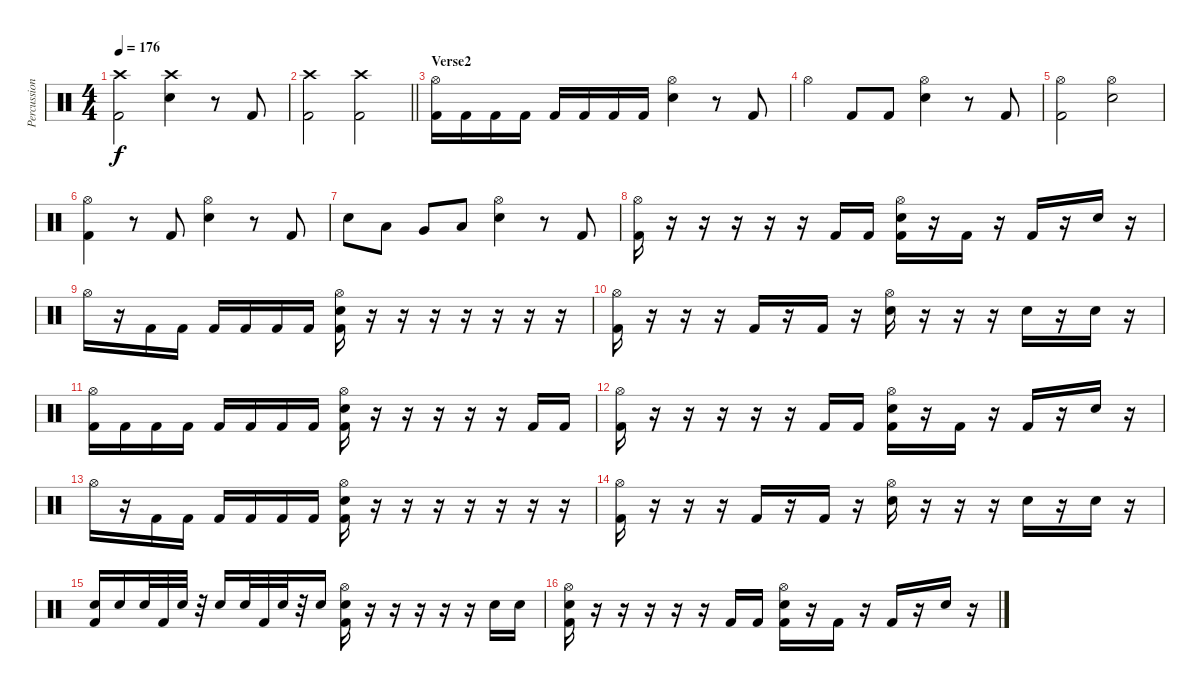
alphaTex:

\track ("Percussion" "Percussion") {instrument percussion}
\staff {score}
\articulation defaults
\ts (4 4)
\tempo 176
\clef neutral
\ks c
("Crash high (hit)" "Kick (hit) 2").2{dy f} ("Crash high (hit)" "Snare (hit) 2").4 r.8 "Kick (hit) 2".8 |
\barLineRight lightlight
("Crash high (hit)" "Kick (hit) 2").2 ("Crash high (hit)" "Kick (hit) 2").2 |
\section ("" "Verse2")
("Hi-Hat (open)" "Kick (hit) 2").16 "Kick (hit) 2".16 "Kick (hit) 2".16 "Kick (hit) 2".16 "Kick (hit) 2".16 "Kick (hit) 2".16 "Kick (hit) 2".16 "Kick (hit) 2".16 ("Hi-Hat (open)" "Snare (hit) 2").4 r.8 "Kick (hit) 2".8 |
"Hi-Hat (open)".4 "Kick (hit) 2".8 "Kick (hit) 2".8 ("Hi-Hat (open)" "Snare (hit) 2").4 r.8 "Kick (hit) 2".8 |
("Hi-Hat (open)" "Kick (hit) 2").2 ("Hi-Hat (open)" "Snare (hit) 2").2 |
("Hi-Hat (open)" "Kick (hit) 2").4 r.8 "Kick (hit) 2".8 ("Hi-Hat (open)" "Snare (hit) 2").4 r.8 "Kick (hit) 2".8 |
"Snare (hit) 2".8 "Low Tom (hit)".8 "Very Low Tom (hit)".8 "Low Floor Tom (hit)".8 ("Hi-Hat (open)" "Snare (hit) 2").4 r.8 "Kick (hit) 2".8 |
("Hi-Hat (open)" "Kick (hit) 2").16 r.16 r.16 r.16 r.16 r.16 "Kick (hit) 2".16 "Kick (hit) 2".16 ("Hi-Hat (open)" "Snare (hit) 2" "Kick (hit) 2").16 r.16 "Kick (hit) 2".16 r.16 "Kick (hit) 2".16 r.16 "Snare (hit) 2".16 r.16 |
"Hi-Hat (open)".16 r.16 "Kick (hit) 2".16 "Kick (hit) 2".16 "Kick (hit) 2".16 "Kick (hit) 2".16 "Kick (hit) 2".16 "Kick (hit) 2".16 ("Hi-Hat (open)" "Snare (hit) 2" "Kick (hit) 2").16 r.16 r.16 r.16 r.16 r.16 r.16 r.16 |
("Hi-Hat (open)" "Kick (hit) 2").16 r.16 r.16 r.16 "Kick (hit) 2".16 r.16 "Kick (hit) 2".16 r.16 ("Hi-Hat (open)" "Snare (hit) 2").16 r.16 r.16 r.16 "Snare (hit) 2".16 r.16 "Snare (hit) 2".16 r.16 |
("Hi-Hat (open)" "Kick (hit) 2").16 "Kick (hit) 2".16 "Kick (hit) 2".16 "Kick (hit) 2".16 "Kick (hit) 2".16 "Kick (hit) 2".16 "Kick (hit) 2".16 "Kick (hit) 2".16 ("Hi-Hat (open)" "Snare (hit) 2" "Kick (hit) 2").16 r.16 r.16 r.16 r.16 r.16 "Kick (hit) 2".16 "Kick (hit) 2".16 |
("Hi-Hat (open)" "Kick (hit) 2").16 r.16 r.16 r.16 r.16 r.16 "Kick (hit) 2".16 "Kick (hit) 2".16 ("Hi-Hat (open)" "Snare (hit) 2" "Kick (hit) 2").16 r.16 "Kick (hit) 2".16 r.16 "Kick (hit) 2".16 r.16 "Snare (hit) 2".16 r.16 |
"Hi-Hat (open)".16 r.16 "Kick (hit) 2".16 "Kick (hit) 2".16 "Kick (hit) 2".16 "Kick (hit) 2".16 "Kick (hit) 2".16 "Kick (hit) 2".16 ("Hi-Hat (open)" "Snare (hit) 2" "Kick (hit) 2").16 r.16 r.16 r.16 r.16 r.16 r.16 r.16 |
("Hi-Hat (open)" "Kick (hit) 2").16 r.16 r.16 r.16 "Kick (hit) 2".16 r.16 "Kick (hit) 2".16 r.16 ("Hi-Hat (open)" "Snare (hit) 2").16 r.16 r.16 r.16 "Snare (hit) 2".16 r.16 "Snare (hit) 2".16 r.16 |
("Snare (hit) 2" "Kick (hit) 2").16 "Snare (hit) 2".16 "Snare (hit) 2".32 "Kick (hit) 2".32 "Snare (hit) 2".32 r.32 "Snare (hit) 2".16 "Snare (hit) 2".32 "Kick (hit) 2".32 "Snare (hit) 2".32 r.32 "Snare (hit) 2".16 ("Hi-Hat (open)" "Snare (hit) 2" "Kick (hit) 2").16 r.16 r.16 r.16 r.16 r.16 "Snare (hit) 2".16 "Snare (hit) 2".16 |
("Hi-Hat (open)" "Snare (hit) 2" "Kick (hit) 2").16 r.16 r.16 r.16 r.16 r.16 "Kick (hit) 2".16 "Kick (hit) 2".16 ("Hi-Hat (open)" "Snare (hit) 2" "Kick (hit) 2").16 r.16 "Kick (hit) 2".16 r.16 "Kick (hit) 2".16 r.16 "Snare (hit) 2".16 r.16
